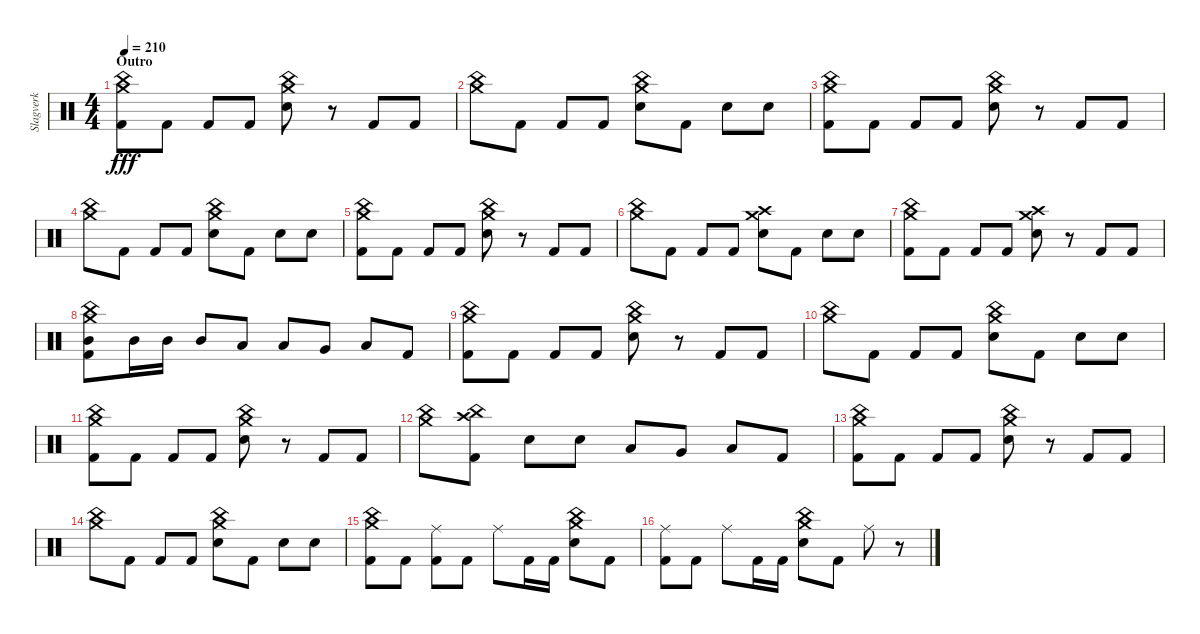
\track ("Slagverk" "Slagverk") {instrument percussion}
\staff {score}
\articulation defaults
\ts (4 4)
\section ("" "Outro")
\tempo 210
\clef neutral
\ks c
("China (hit)" "Crash medium (hit)" "Kick (hit) 2").8{dy fff} "Kick (hit) 2".8 "Kick (hit) 2".8 "Kick (hit) 2".8 ("China (hit)" "Crash medium (hit)" "Electric Snare (hit)").8 r.8 "Kick (hit) 2".8 "Kick (hit) 2".8 |
("China (hit)" "Crash medium (hit)").8 "Kick (hit) 2".8 "Kick (hit) 2".8 "Kick (hit) 2".8 ("China (hit)" "Crash medium (hit)" "Electric Snare (hit)").8 "Kick (hit) 2".8 "Electric Snare (hit)".8 "Electric Snare (hit)".8 |
("China (hit)" "Crash medium (hit)" "Kick (hit) 2").8 "Kick (hit) 2".8 "Kick (hit) 2".8 "Kick (hit) 2".8 ("China (hit)" "Crash medium (hit)" "Electric Snare (hit)").8 r.8 "Kick (hit) 2".8 "Kick (hit) 2".8 |
("China (hit)" "Crash medium (hit)").8 "Kick (hit) 2".8 "Kick (hit) 2".8 "Kick (hit) 2".8 ("China (hit)" "Crash medium (hit)" "Electric Snare (hit)").8 "Kick (hit) 2".8 "Electric Snare (hit)".8 "Electric Snare (hit)".8 |
("China (hit)" "Crash medium (hit)" "Kick (hit) 2").8 "Kick (hit) 2".8 "Kick (hit) 2".8 "Kick (hit) 2".8 ("China (hit)" "Crash medium (hit)" "Electric Snare (hit)").8 r.8 "Kick (hit) 2".8 "Kick (hit) 2".8 |
("China (hit)" "Crash medium (hit)").8 "Kick (hit) 2".8 "Kick (hit) 2".8 "Kick (hit) 2".8 ("Crash high (hit)" "Crash medium (hit)" "Electric Snare (hit)").8 "Kick (hit) 2".8 "Electric Snare (hit)".8 "Electric Snare (hit)".8 |
("China (hit)" "Crash medium (hit)" "Kick (hit) 2").8 "Kick (hit) 2".8 "Kick (hit) 2".8 "Kick (hit) 2".8 ("Crash high (hit)" "Crash medium (hit)" "Electric Snare (hit)").8 r.8 "Kick (hit) 2".8 "Kick (hit) 2".8 |
("China (hit)" "Crash medium (hit)" "Mid Tom (hit)" "Kick (hit) 2").8 "Mid Tom (hit)".16 "Mid Tom (hit)".16 "Mid Tom (hit)".8 "Low Tom (hit)".8 "Low Tom (hit)".8 "Very Low Tom (hit)".8 "Low Floor Tom (hit)".8 "Kick (hit) 2".8 |
("China (hit)" "Crash medium (hit)" "Kick (hit) 2").8 "Kick (hit) 2".8 "Kick (hit) 2".8 "Kick (hit) 2".8 ("China (hit)" "Crash medium (hit)" "Electric Snare (hit)").8 r.8 "Kick (hit) 2".8 "Kick (hit) 2".8 |
("China (hit)" "Crash medium (hit)").8 "Kick (hit) 2".8 "Kick (hit) 2".8 "Kick (hit) 2".8 ("China (hit)" "Crash medium (hit)" "Electric Snare (hit)").8 "Kick (hit) 2".8 "Electric Snare (hit)".8 "Electric Snare (hit)".8 |
("China (hit)" "Crash medium (hit)" "Kick (hit) 2").8 "Kick (hit) 2".8 "Kick (hit) 2".8 "Kick (hit) 2".8 ("China (hit)" "Crash medium (hit)" "Electric Snare (hit)").8 r.8 "Kick (hit) 2".8 "Kick (hit) 2".8 |
("China (hit)" "Crash medium (hit)").8 ("China (hit)" "Crash high (hit)" "Kick (hit) 2").8 "Electric Snare (hit)".8 "Electric Snare (hit)".8 "Low Tom (hit)".8 "Very Low Tom (hit)".8 "Low Floor Tom (hit)".8 "Kick (hit) 2".8 |
("China (hit)" "Crash medium (hit)" "Kick (hit) 2").8 "Kick (hit) 2".8 "Kick (hit) 2".8 "Kick (hit) 2".8 ("China (hit)" "Crash medium (hit)" "Electric Snare (hit)").8 r.8 "Kick (hit) 2".8 "Kick (hit) 2".8 |
("China (hit)" "Crash medium (hit)").8 "Kick (hit) 2".8 "Kick (hit) 2".8 "Kick (hit) 2".8 ("China (hit)" "Crash medium (hit)" "Electric Snare (hit)").8 "Kick (hit) 2".8 "Electric Snare (hit)".8 "Electric Snare (hit)".8 |
("China (hit)" "Crash medium (hit)" "Kick (hit) 2").8 "Kick (hit) 2".8 ("Ride (middle)" "Kick (hit) 2").8 "Kick (hit) 2".8 "Ride (middle)".8 "Kick (hit) 2".16 "Kick (hit) 2".16 ("China (hit)" "Crash medium (hit)" "Electric Snare (hit)").8 "Kick (hit) 2".8 |
("Ride (middle)" "Kick (hit) 2").8 "Kick (hit) 2".8 "Ride (middle)".8 "Kick (hit) 2".16 "Kick (hit) 2".16 ("China (hit)" "Crash medium (hit)" "Electric Snare (hit)").8 "Kick (hit) 2".8 "Ride (middle)".8 r.8
